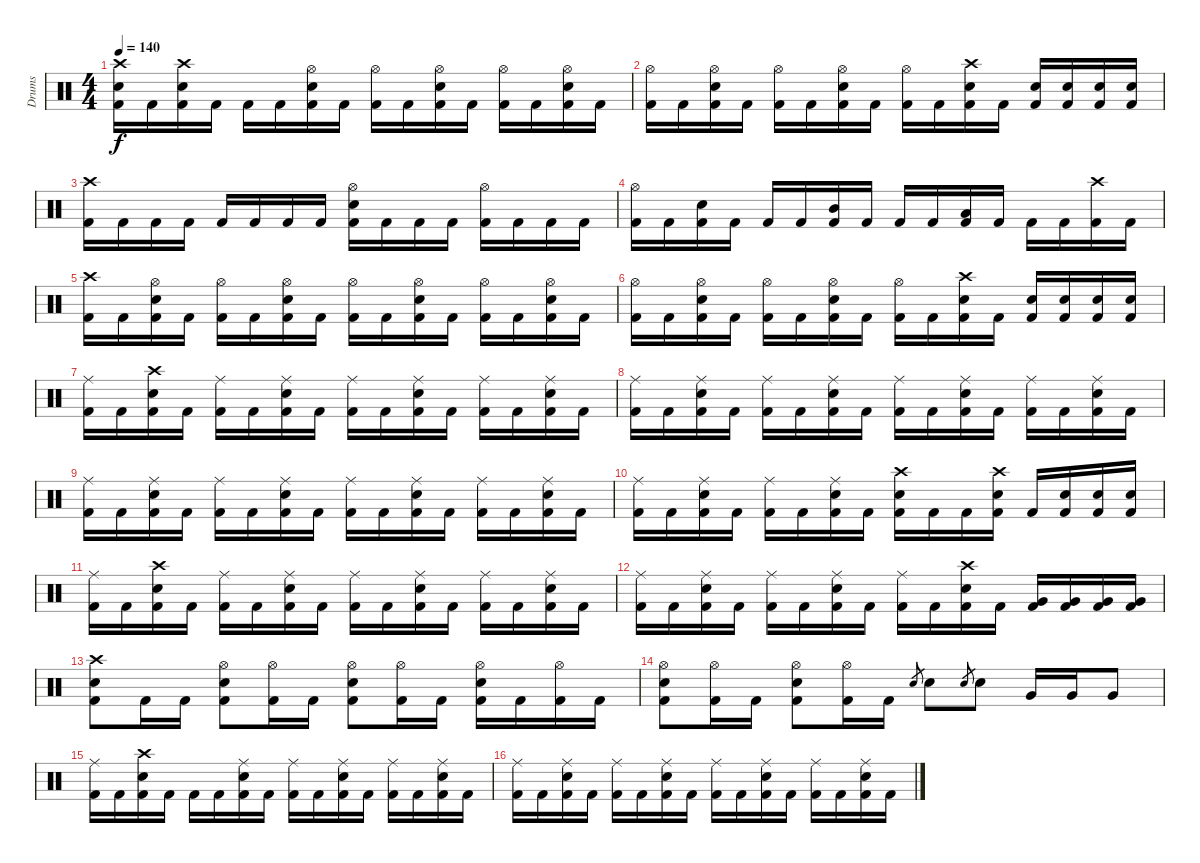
\track ("Drums" "Drums") {instrument percussion}
\staff {score}
\articulation defaults
\ts (4 4)
\tempo 140
\clef neutral
\ks c
("Crash high (hit)" "Electric Snare (hit)" "Kick (hit) 2").16{dy f} "Kick (hit) 2".16 ("Crash high (hit)" "Electric Snare (hit)" "Kick (hit) 2").16 "Kick (hit) 2".16 "Kick (hit) 2".16 "Kick (hit) 2".16 ("Hi-Hat (open)" "Electric Snare (hit)" "Kick (hit) 2").16 "Kick (hit) 2".16 ("Hi-Hat (open)" "Kick (hit) 2").16 "Kick (hit) 2".16 ("Hi-Hat (open)" "Electric Snare (hit)" "Kick (hit) 2").16 "Kick (hit) 2".16 ("Hi-Hat (open)" "Kick (hit) 2").16 "Kick (hit) 2".16 ("Hi-Hat (open)" "Electric Snare (hit)" "Kick (hit) 2").16 "Kick (hit) 2".16 |
("Hi-Hat (open)" "Kick (hit) 2").16 "Kick (hit) 2".16 ("Hi-Hat (open)" "Electric Snare (hit)" "Kick (hit) 2").16 "Kick (hit) 2".16 ("Hi-Hat (open)" "Kick (hit) 2").16 "Kick (hit) 2".16 ("Hi-Hat (open)" "Electric Snare (hit)" "Kick (hit) 2").16 "Kick (hit) 2".16 ("Hi-Hat (open)" "Kick (hit) 2").16 "Kick (hit) 2".16 ("Crash high (hit)" "Electric Snare (hit)" "Kick (hit) 2").16 "Kick (hit) 2".16 ("Electric Snare (hit)" "Kick (hit) 2").16 ("Electric Snare (hit)" "Kick (hit) 2").16 ("Electric Snare (hit)" "Kick (hit) 2").16 ("Electric Snare (hit)" "Kick (hit) 2").16 |
("Crash high (hit)" "Kick (hit) 2").16 "Kick (hit) 2".16 "Kick (hit) 2".16 "Kick (hit) 2".16 "Kick (hit) 2".16 "Kick (hit) 2".16 "Kick (hit) 2".16 "Kick (hit) 2".16 ("Hi-Hat (open)" "Electric Snare (hit)" "Kick (hit) 2").16 "Kick (hit) 2".16 "Kick (hit) 2".16 "Kick (hit) 2".16 ("Hi-Hat (open)" "Kick (hit) 2").16 "Kick (hit) 2".16 "Kick (hit) 2".16 "Kick (hit) 2".16 |
("Hi-Hat (open)" "Kick (hit) 2").16 "Kick (hit) 2".16 ("Electric Snare (hit)" "Kick (hit) 2").16 "Kick (hit) 2".16 "Kick (hit) 2".16 "Kick (hit) 2".16 ("Mid Tom (hit)" "Kick (hit) 2").16 "Kick (hit) 2".16 "Kick (hit) 2".16 "Kick (hit) 2".16 ("Low Tom (hit)" "Kick (hit) 2").16 "Kick (hit) 2".16 "Kick (hit) 2".16 "Kick (hit) 2".16 ("Crash high (hit)" "Kick (hit) 2").16 "Kick (hit) 2".16 |
("Crash high (hit)" "Kick (hit) 2").16 "Kick (hit) 2".16 ("Hi-Hat (open)" "Electric Snare (hit)" "Kick (hit) 2").16 "Kick (hit) 2".16 ("Hi-Hat (open)" "Kick (hit) 2").16 "Kick (hit) 2".16 ("Hi-Hat (open)" "Electric Snare (hit)" "Kick (hit) 2").16 "Kick (hit) 2".16 ("Hi-Hat (open)" "Kick (hit) 2").16 "Kick (hit) 2".16 ("Hi-Hat (open)" "Electric Snare (hit)" "Kick (hit) 2").16 "Kick (hit) 2".16 ("Hi-Hat (open)" "Kick (hit) 2").16 "Kick (hit) 2".16 ("Hi-Hat (open)" "Electric Snare (hit)" "Kick (hit) 2").16 "Kick (hit) 2".16 |
("Hi-Hat (open)" "Kick (hit) 2").16 "Kick (hit) 2".16 ("Hi-Hat (open)" "Electric Snare (hit)" "Kick (hit) 2").16 "Kick (hit) 2".16 ("Hi-Hat (open)" "Kick (hit) 2").16 "Kick (hit) 2".16 ("Hi-Hat (open)" "Electric Snare (hit)" "Kick (hit) 2").16 "Kick (hit) 2".16 ("Hi-Hat (open)" "Kick (hit) 2").16 "Kick (hit) 2".16 ("Crash high (hit)" "Electric Snare (hit)" "Kick (hit) 2").16 "Kick (hit) 2".16 ("Electric Snare (hit)" "Kick (hit) 2").16 ("Electric Snare (hit)" "Kick (hit) 2").16 ("Electric Snare (hit)" "Kick (hit) 2").16 ("Electric Snare (hit)" "Kick (hit) 2").16 |
("Ride (middle)" "Kick (hit) 2").16 "Kick (hit) 2".16 ("Crash high (hit)" "Electric Snare (hit)" "Kick (hit) 2").16 "Kick (hit) 2".16 ("Ride (middle)" "Kick (hit) 2").16 "Kick (hit) 2".16 ("Ride (middle)" "Electric Snare (hit)" "Kick (hit) 2").16 "Kick (hit) 2".16 ("Ride (middle)" "Kick (hit) 2").16 "Kick (hit) 2".16 ("Ride (middle)" "Electric Snare (hit)" "Kick (hit) 2").16 "Kick (hit) 2".16 ("Ride (middle)" "Kick (hit) 2").16 "Kick (hit) 2".16 ("Ride (middle)" "Electric Snare (hit)" "Kick (hit) 2").16 "Kick (hit) 2".16 |
("Ride (middle)" "Kick (hit) 2").16 "Kick (hit) 2".16 ("Ride (middle)" "Electric Snare (hit)" "Kick (hit) 2").16 "Kick (hit) 2".16 ("Ride (middle)" "Kick (hit) 2").16 "Kick (hit) 2".16 ("Ride (middle)" "Electric Snare (hit)" "Kick (hit) 2").16 "Kick (hit) 2".16 ("Ride (middle)" "Kick (hit) 2").16 "Kick (hit) 2".16 ("Ride (middle)" "Electric Snare (hit)" "Kick (hit) 2").16 "Kick (hit) 2".16 ("Ride (middle)" "Kick (hit) 2").16 "Kick (hit) 2".16 ("Ride (middle)" "Electric Snare (hit)" "Kick (hit) 2").16 "Kick (hit) 2".16 |
("Ride (middle)" "Kick (hit) 2").16 "Kick (hit) 2".16 ("Ride (middle)" "Electric Snare (hit)" "Kick (hit) 2").16 "Kick (hit) 2".16 ("Ride (middle)" "Kick (hit) 2").16 "Kick (hit) 2".16 ("Ride (middle)" "Electric Snare (hit)" "Kick (hit) 2").16 "Kick (hit) 2".16 ("Ride (middle)" "Kick (hit) 2").16 "Kick (hit) 2".16 ("Ride (middle)" "Electric Snare (hit)" "Kick (hit) 2").16 "Kick (hit) 2".16 ("Ride (middle)" "Kick (hit) 2").16 "Kick (hit) 2".16 ("Ride (middle)" "Electric Snare (hit)" "Kick (hit) 2").16 "Kick (hit) 2".16 |
("Ride (middle)" "Kick (hit) 2").16 "Kick (hit) 2".16 ("Ride (middle)" "Electric Snare (hit)" "Kick (hit) 2").16 "Kick (hit) 2".16 ("Ride (middle)" "Kick (hit) 2").16 "Kick (hit) 2".16 ("Ride (middle)" "Electric Snare (hit)" "Kick (hit) 2").16 "Kick (hit) 2".16 ("Crash high (hit)" "Electric Snare (hit)" "Kick (hit) 2").16 "Kick (hit) 2".16 "Kick (hit) 2".16 ("Crash high (hit)" "Electric Snare (hit)" "Kick (hit) 2").16 "Kick (hit) 2".16 ("Electric Snare (hit)" "Kick (hit) 2").16 ("Electric Snare (hit)" "Kick (hit) 2").16 ("Electric Snare (hit)" "Kick (hit) 2").16 |
("Ride (middle)" "Kick (hit) 2").16 "Kick (hit) 2".16 ("Crash high (hit)" "Electric Snare (hit)" "Kick (hit) 2").16 "Kick (hit) 2".16 ("Ride (middle)" "Kick (hit) 2").16 "Kick (hit) 2".16 ("Ride (middle)" "Electric Snare (hit)" "Kick (hit) 2").16 "Kick (hit) 2".16 ("Ride (middle)" "Kick (hit) 2").16 "Kick (hit) 2".16 ("Ride (middle)" "Electric Snare (hit)" "Kick (hit) 2").16 "Kick (hit) 2".16 ("Ride (middle)" "Kick (hit) 2").16 "Kick (hit) 2".16 ("Ride (middle)" "Electric Snare (hit)" "Kick (hit) 2").16 "Kick (hit) 2".16 |
("Ride (middle)" "Kick (hit) 2").16 "Kick (hit) 2".16 ("Ride (middle)" "Electric Snare (hit)" "Kick (hit) 2").16 "Kick (hit) 2".16 ("Ride (middle)" "Kick (hit) 2").16 "Kick (hit) 2".16 ("Ride (middle)" "Electric Snare (hit)" "Kick (hit) 2").16 "Kick (hit) 2".16 ("Ride (middle)" "Kick (hit) 2").16 "Kick (hit) 2".16 ("Crash high (hit)" "Electric Snare (hit)" "Kick (hit) 2").16 "Kick (hit) 2".16 ("Very Low Tom (hit)" "Kick (hit) 2").16 ("Very Low Tom (hit)" "Kick (hit) 2").16 ("Very Low Tom (hit)" "Kick (hit) 2").16 ("Very Low Tom (hit)" "Kick (hit) 2").16 |
("Crash high (hit)" "Electric Snare (hit)" "Kick (hit) 2").8 "Kick (hit) 2".16 "Kick (hit) 2".16 ("Hi-Hat (open)" "Electric Snare (hit)" "Kick (hit) 2").8 ("Hi-Hat (open)" "Kick (hit) 2").16 "Kick (hit) 2".16 ("Hi-Hat (open)" "Electric Snare (hit)" "Kick (hit) 2").8 ("Hi-Hat (open)" "Kick (hit) 2").16 "Kick (hit) 2".16 ("Hi-Hat (open)" "Electric Snare (hit)" "Kick (hit) 2").16 "Kick (hit) 2".16 ("Hi-Hat (open)" "Kick (hit) 2").16 "Kick (hit) 2".16 |
("Hi-Hat (open)" "Electric Snare (hit)" "Kick (hit) 2").8 ("Hi-Hat (open)" "Kick (hit) 2").16 "Kick (hit) 2".16 ("Hi-Hat (open)" "Electric Snare (hit)" "Kick (hit) 2").8 ("Hi-Hat (open)" "Kick (hit) 2").16 "Kick (hit) 2".16 "Electric Snare (hit)".8{gr} "Electric Snare (hit)".8 "Electric Snare (hit)".8{gr} "Electric Snare (hit)".8 "Very Low Tom (hit)".16 "Very Low Tom (hit)".16 "Very Low Tom (hit)".8 |
("Ride (middle)" "Kick (hit) 2").16 "Kick (hit) 2".16 ("Crash high (hit)" "Electric Snare (hit)" "Kick (hit) 2").16 "Kick (hit) 2".16 "Kick (hit) 2".16 "Kick (hit) 2".16 ("Ride (middle)" "Electric Snare (hit)" "Kick (hit) 2").16 "Kick (hit) 2".16 ("Ride (middle)" "Kick (hit) 2").16 "Kick (hit) 2".16 ("Ride (middle)" "Electric Snare (hit)" "Kick (hit) 2").16 "Kick (hit) 2".16 ("Ride (middle)" "Kick (hit) 2").16 "Kick (hit) 2".16 ("Ride (middle)" "Electric Snare (hit)" "Kick (hit) 2").16 "Kick (hit) 2".16 |
("Ride (middle)" "Kick (hit) 2").16 "Kick (hit) 2".16 ("Ride (middle)" "Electric Snare (hit)" "Kick (hit) 2").16 "Kick (hit) 2".16 ("Ride (middle)" "Kick (hit) 2").16 "Kick (hit) 2".16 ("Ride (middle)" "Electric Snare (hit)" "Kick (hit) 2").16 "Kick (hit) 2".16 ("Ride (middle)" "Kick (hit) 2").16 "Kick (hit) 2".16 ("Ride (middle)" "Electric Snare (hit)" "Kick (hit) 2").16 "Kick (hit) 2".16 ("Ride (middle)" "Kick (hit) 2").16 "Kick (hit) 2".16 ("Ride (middle)" "Electric Snare (hit)" "Kick (hit) 2").16 "Kick (hit) 2".16
